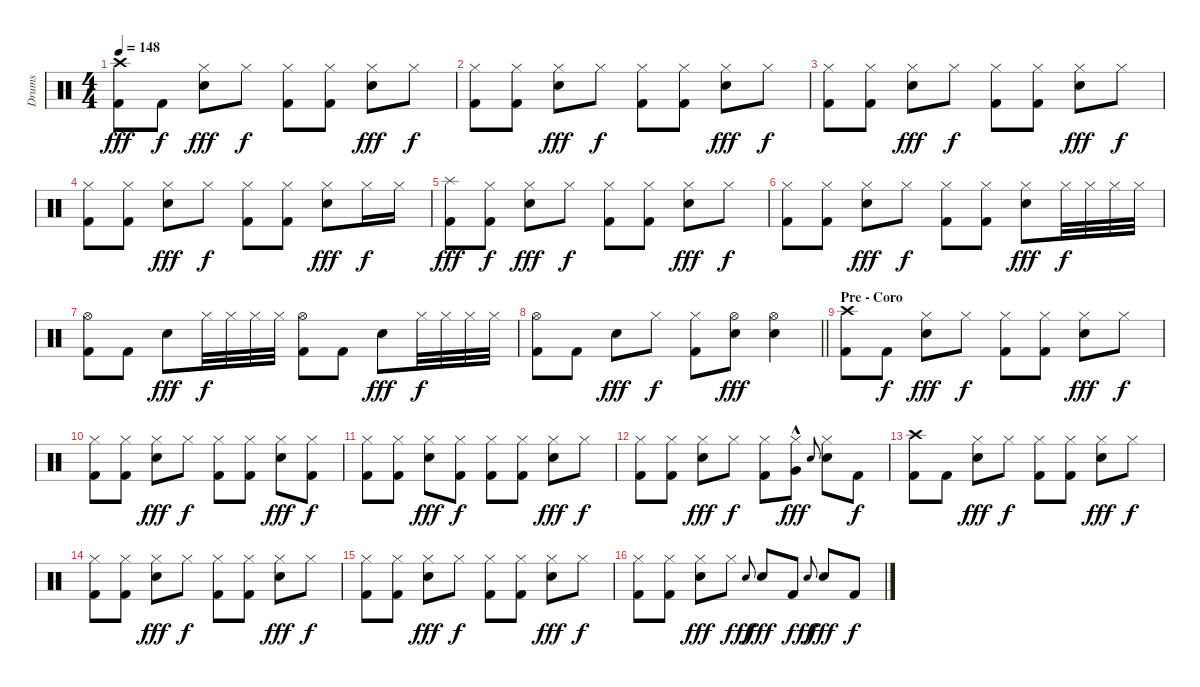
\track ("Drums" "Drums") {instrument percussion}
\staff {score}
\articulation defaults
\ts (4 4)
\tempo 148
\clef neutral
\ks c
("Crash high (hit)" "Kick (hit) 2").8{dy fff} "Kick (hit) 2".8{dy f} ("Hi-Hat (closed)" "Electric Snare (hit)").8{dy fff} "Hi-Hat (closed)".8{dy f} ("Hi-Hat (closed)" "Kick (hit) 2").8 ("Hi-Hat (closed)" "Kick (hit) 2").8 ("Hi-Hat (closed)" "Electric Snare (hit)").8{dy fff} "Hi-Hat (closed)".8{dy f} |
("Hi-Hat (closed)" "Kick (hit) 2").8 ("Hi-Hat (closed)" "Kick (hit) 2").8 ("Hi-Hat (closed)" "Electric Snare (hit)").8{dy fff} "Hi-Hat (closed)".8{dy f} ("Hi-Hat (closed)" "Kick (hit) 2").8 ("Hi-Hat (closed)" "Kick (hit) 2").8 ("Hi-Hat (closed)" "Electric Snare (hit)").8{dy fff} "Hi-Hat (closed)".8{dy f} |
("Hi-Hat (closed)" "Kick (hit) 2").8 ("Hi-Hat (closed)" "Kick (hit) 2").8 ("Hi-Hat (closed)" "Electric Snare (hit)").8{dy fff} "Hi-Hat (closed)".8{dy f} ("Hi-Hat (closed)" "Kick (hit) 2").8 ("Hi-Hat (closed)" "Kick (hit) 2").8 ("Hi-Hat (closed)" "Electric Snare (hit)").8{dy fff} "Hi-Hat (closed)".8{dy f} |
("Hi-Hat (closed)" "Kick (hit) 2").8 ("Hi-Hat (closed)" "Kick (hit) 2").8 ("Hi-Hat (closed)" "Electric Snare (hit)").8{dy fff} "Hi-Hat (closed)".8{dy f} ("Hi-Hat (closed)" "Kick (hit) 2").8 ("Hi-Hat (closed)" "Kick (hit) 2").8 ("Hi-Hat (closed)" "Electric Snare (hit)").8{dy fff} "Hi-Hat (closed)".16{dy f} "Hi-Hat (closed)".16 |
("Splash (hit)" "Kick (hit) 2").8{dy fff} ("Hi-Hat (closed)" "Kick (hit) 2").8{dy f} ("Hi-Hat (closed)" "Electric Snare (hit)").8{dy fff} "Hi-Hat (closed)".8{dy f} ("Hi-Hat (closed)" "Kick (hit) 2").8 ("Hi-Hat (closed)" "Kick (hit) 2").8 ("Hi-Hat (closed)" "Electric Snare (hit)").8{dy fff} "Hi-Hat (closed)".8{dy f} |
("Hi-Hat (closed)" "Kick (hit) 2").8 ("Hi-Hat (closed)" "Kick (hit) 2").8 ("Hi-Hat (closed)" "Electric Snare (hit)").8{dy fff} "Hi-Hat (closed)".8{dy f} ("Hi-Hat (closed)" "Kick (hit) 2").8 ("Hi-Hat (closed)" "Kick (hit) 2").8 ("Hi-Hat (closed)" "Electric Snare (hit)").8{dy fff} "Hi-Hat (closed)".32{dy f} "Hi-Hat (closed)".32 "Hi-Hat (closed)".32 "Hi-Hat (closed)".32 |
("Hi-Hat (open)" "Kick (hit) 2").8 "Kick (hit) 2".8 "Electric Snare (hit)".8{dy fff} "Hi-Hat (closed)".32{dy f} "Hi-Hat (closed)".32 "Hi-Hat (closed)".32 "Hi-Hat (closed)".32 ("Hi-Hat (open)" "Kick (hit) 2").8 "Kick (hit) 2".8 "Electric Snare (hit)".8{dy fff} "Hi-Hat (closed)".32{dy f} "Hi-Hat (closed)".32 "Hi-Hat (closed)".32 "Hi-Hat (closed)".32 |
\barLineRight lightlight
("Hi-Hat (open)" "Kick (hit) 2").8 "Kick (hit) 2".8 "Electric Snare (hit)".8{dy fff} "Hi-Hat (closed)".8{dy f} ("Hi-Hat (closed)" "Kick (hit) 2").8 ("Hi-Hat (open)" "Electric Snare (hit)").8{dy fff} ("Hi-Hat (open)" "Electric Snare (hit)").4 |
\section ("" "Pre - Coro")
("Crash high (hit)" "Kick (hit) 2").8 "Kick (hit) 2".8{dy f} ("Hi-Hat (closed)" "Electric Snare (hit)").8{dy fff} "Hi-Hat (closed)".8{dy f} ("Hi-Hat (closed)" "Kick (hit) 2").8 ("Hi-Hat (closed)" "Kick (hit) 2").8 ("Hi-Hat (closed)" "Electric Snare (hit)").8{dy fff} "Hi-Hat (closed)".8{dy f} |
("Hi-Hat (closed)" "Kick (hit) 2").8 ("Hi-Hat (closed)" "Kick (hit) 2").8 ("Hi-Hat (closed)" "Electric Snare (hit)").8{dy fff} "Hi-Hat (closed)".8{dy f} ("Hi-Hat (closed)" "Kick (hit) 2").8 ("Hi-Hat (closed)" "Kick (hit) 2").8 ("Hi-Hat (closed)" "Electric Snare (hit)").8{dy fff} ("Hi-Hat (closed)" "Kick (hit) 2").8{dy f} |
("Hi-Hat (closed)" "Kick (hit) 2").8 ("Hi-Hat (closed)" "Kick (hit) 2").8 ("Hi-Hat (closed)" "Electric Snare (hit)").8{dy fff} ("Hi-Hat (closed)" "Kick (hit) 2").8{dy f} ("Hi-Hat (closed)" "Kick (hit) 2").8 ("Hi-Hat (closed)" "Kick (hit) 2").8 ("Hi-Hat (closed)" "Electric Snare (hit)").8{dy fff} "Hi-Hat (closed)".8{dy f} |
("Hi-Hat (closed)" "Kick (hit) 2").8 ("Hi-Hat (closed)" "Kick (hit) 2").8 ("Hi-Hat (closed)" "Electric Snare (hit)").8{dy fff} "Hi-Hat (closed)".8{dy f} ("Hi-Hat (closed)" "Kick (hit) 2").8 ("Hi-Hat (closed)" "Very Low Tom (hit)"{hac}).8{dy fff} "Electric Snare (hit)".8{gr onbeat} ("Hi-Hat (closed)" "Electric Snare (hit)").8 "Kick (hit) 2".8{dy f} |
("Crash high (hit)" "Kick (hit) 2").8 "Kick (hit) 2".8 ("Hi-Hat (closed)" "Electric Snare (hit)").8{dy fff} "Hi-Hat (closed)".8{dy f} ("Hi-Hat (closed)" "Kick (hit) 2").8 ("Hi-Hat (closed)" "Kick (hit) 2").8 ("Hi-Hat (closed)" "Electric Snare (hit)").8{dy fff} "Hi-Hat (closed)".8{dy f} |
("Hi-Hat (closed)" "Kick (hit) 2").8 ("Hi-Hat (closed)" "Kick (hit) 2").8 ("Hi-Hat (closed)" "Electric Snare (hit)").8{dy fff} "Hi-Hat (closed)".8{dy f} ("Hi-Hat (closed)" "Kick (hit) 2").8 ("Hi-Hat (closed)" "Kick (hit) 2").8 ("Hi-Hat (closed)" "Electric Snare (hit)").8{dy fff} "Hi-Hat (closed)".8{dy f} |
("Hi-Hat (closed)" "Kick (hit) 2").8 ("Hi-Hat (closed)" "Kick (hit) 2").8 ("Hi-Hat (closed)" "Electric Snare (hit)").8{dy fff} "Hi-Hat (closed)".8{dy f} ("Hi-Hat (closed)" "Kick (hit) 2").8 ("Hi-Hat (closed)" "Kick (hit) 2").8 ("Hi-Hat (closed)" "Electric Snare (hit)").8{dy fff} "Hi-Hat (closed)".8{dy f} |
("Hi-Hat (closed)" "Kick (hit) 2").8 ("Hi-Hat (closed)" "Kick (hit) 2").8 ("Hi-Hat (closed)" "Electric Snare (hit)").8{dy fff} "Hi-Hat (closed)".8{dy f} "Electric Snare (hit)".8{gr onbeat dy ff} "Electric Snare (hit)".8{dy fff} "Kick (hit) 2".8{dy f} "Electric Snare (hit)".8{gr onbeat dy ff} "Electric Snare (hit)".8{dy fff} "Kick (hit) 2".8{dy f}
